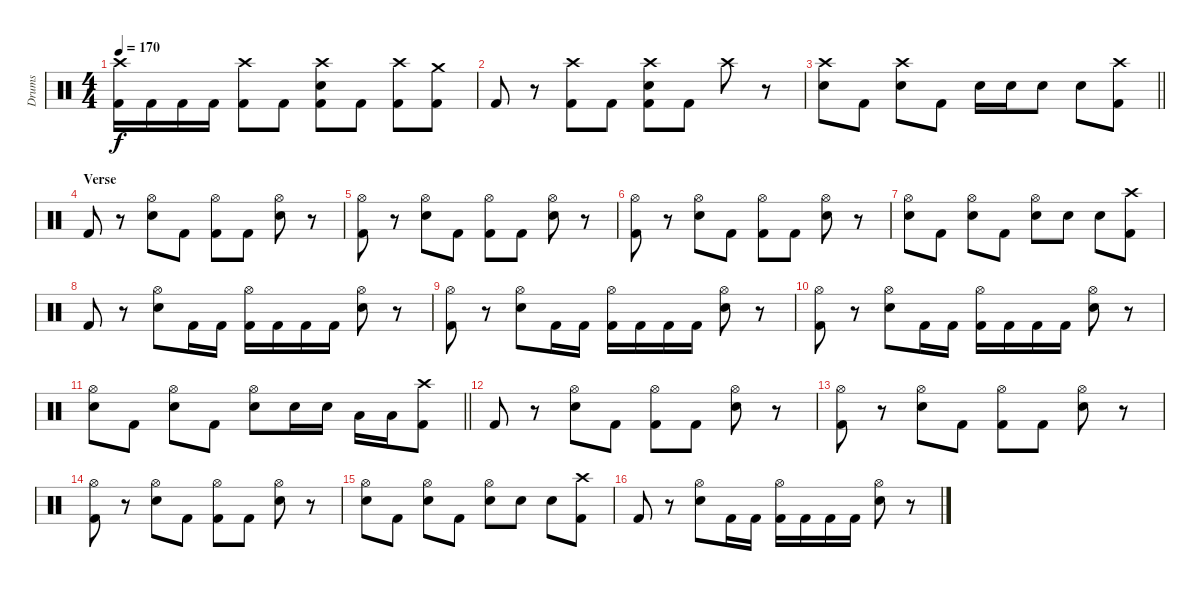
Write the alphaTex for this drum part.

\track ("Drums" "Drums") {instrument percussion}
\staff {score}
\articulation defaults
\ts (4 4)
\tempo 170
\clef neutral
\ks c
("Crash high (hit)" "Kick (hit) 2").16{dy f} "Kick (hit) 2".16 "Kick (hit) 2".16 "Kick (hit) 2".16 ("Crash high (hit)" "Kick (hit) 2").8 "Kick (hit) 2".8 ("Crash high (hit)" "Snare (hit) 2" "Kick (hit) 2").8 "Kick (hit) 2".8 ("Crash high (hit)" "Kick (hit) 2").8 ("Crash medium (hit)" "Kick (hit) 2").8 |
"Kick (hit) 2".8 r.8 ("Crash high (hit)" "Kick (hit) 2").8 "Kick (hit) 2".8 ("Crash high (hit)" "Snare (hit) 2" "Kick (hit) 2").8 "Kick (hit) 2".8 "Crash high (hit)".8 r.8 |
\barLineRight lightlight
("Crash high (hit)" "Snare (hit) 2").8 "Kick (hit) 2".8 ("Crash high (hit)" "Snare (hit) 2").8 "Kick (hit) 2".8 "Snare (hit) 2".16 "Snare (hit) 2".16 "Snare (hit) 2".8 "Snare (hit) 2".8 ("Crash high (hit)" "Kick (hit) 2").8 |
\section ("" "Verse")
"Kick (hit) 2".8 r.8 ("Hi-Hat (open)" "Snare (hit) 2").8 "Kick (hit) 2".8 ("Hi-Hat (open)" "Kick (hit) 2").8 "Kick (hit) 2".8 ("Hi-Hat (open)" "Snare (hit) 2").8 r.8 |
("Hi-Hat (open)" "Kick (hit) 2").8 r.8 ("Hi-Hat (open)" "Snare (hit) 2").8 "Kick (hit) 2".8 ("Hi-Hat (open)" "Kick (hit) 2").8 "Kick (hit) 2".8 ("Hi-Hat (open)" "Snare (hit) 2").8 r.8 |
("Hi-Hat (open)" "Kick (hit) 2").8 r.8 ("Hi-Hat (open)" "Snare (hit) 2").8 "Kick (hit) 2".8 ("Hi-Hat (open)" "Kick (hit) 2").8 "Kick (hit) 2".8 ("Hi-Hat (open)" "Snare (hit) 2").8 r.8 |
("Hi-Hat (open)" "Snare (hit) 2").8 "Kick (hit) 2".8 ("Hi-Hat (open)" "Snare (hit) 2").8 "Kick (hit) 2".8 ("Hi-Hat (open)" "Snare (hit) 2").8 "Snare (hit) 2".8 "Snare (hit) 2".8 ("Crash high (hit)" "Kick (hit) 2").8 |
"Kick (hit) 2".8 r.8 ("Hi-Hat (open)" "Snare (hit) 2").8 "Kick (hit) 2".16 "Kick (hit) 2".16 ("Hi-Hat (open)" "Kick (hit) 2").16 "Kick (hit) 2".16 "Kick (hit) 2".16 "Kick (hit) 2".16 ("Hi-Hat (open)" "Snare (hit) 2").8 r.8 |
("Hi-Hat (open)" "Kick (hit) 2").8 r.8 ("Hi-Hat (open)" "Snare (hit) 2").8 "Kick (hit) 2".16 "Kick (hit) 2".16 ("Hi-Hat (open)" "Kick (hit) 2").16 "Kick (hit) 2".16 "Kick (hit) 2".16 "Kick (hit) 2".16 ("Hi-Hat (open)" "Snare (hit) 2").8 r.8 |
("Hi-Hat (open)" "Kick (hit) 2").8 r.8 ("Hi-Hat (open)" "Snare (hit) 2").8 "Kick (hit) 2".16 "Kick (hit) 2".16 ("Hi-Hat (open)" "Kick (hit) 2").16 "Kick (hit) 2".16 "Kick (hit) 2".16 "Kick (hit) 2".16 ("Hi-Hat (open)" "Snare (hit) 2").8 r.8 |
\barLineRight lightlight
("Hi-Hat (open)" "Snare (hit) 2").8 "Kick (hit) 2".8 ("Hi-Hat (open)" "Snare (hit) 2").8 "Kick (hit) 2".8 ("Hi-Hat (open)" "Snare (hit) 2").8 "Snare (hit) 2".16 "Snare (hit) 2".16 "Low Tom (hit)".16 "Low Tom (hit)".16 ("Crash high (hit)" "Kick (hit) 2").8 |
"Kick (hit) 2".8 r.8 ("Hi-Hat (open)" "Snare (hit) 2").8 "Kick (hit) 2".8 ("Hi-Hat (open)" "Kick (hit) 2").8 "Kick (hit) 2".8 ("Hi-Hat (open)" "Snare (hit) 2").8 r.8 |
("Hi-Hat (open)" "Kick (hit) 2").8 r.8 ("Hi-Hat (open)" "Snare (hit) 2").8 "Kick (hit) 2".8 ("Hi-Hat (open)" "Kick (hit) 2").8 "Kick (hit) 2".8 ("Hi-Hat (open)" "Snare (hit) 2").8 r.8 |
("Hi-Hat (open)" "Kick (hit) 2").8 r.8 ("Hi-Hat (open)" "Snare (hit) 2").8 "Kick (hit) 2".8 ("Hi-Hat (open)" "Kick (hit) 2").8 "Kick (hit) 2".8 ("Hi-Hat (open)" "Snare (hit) 2").8 r.8 |
("Hi-Hat (open)" "Snare (hit) 2").8 "Kick (hit) 2".8 ("Hi-Hat (open)" "Snare (hit) 2").8 "Kick (hit) 2".8 ("Hi-Hat (open)" "Snare (hit) 2").8 "Snare (hit) 2".8 "Snare (hit) 2".8 ("Crash high (hit)" "Kick (hit) 2").8 |
"Kick (hit) 2".8 r.8 ("Hi-Hat (open)" "Snare (hit) 2").8 "Kick (hit) 2".16 "Kick (hit) 2".16 ("Hi-Hat (open)" "Kick (hit) 2").16 "Kick (hit) 2".16 "Kick (hit) 2".16 "Kick (hit) 2".16 ("Hi-Hat (open)" "Snare (hit) 2").8 r.8
